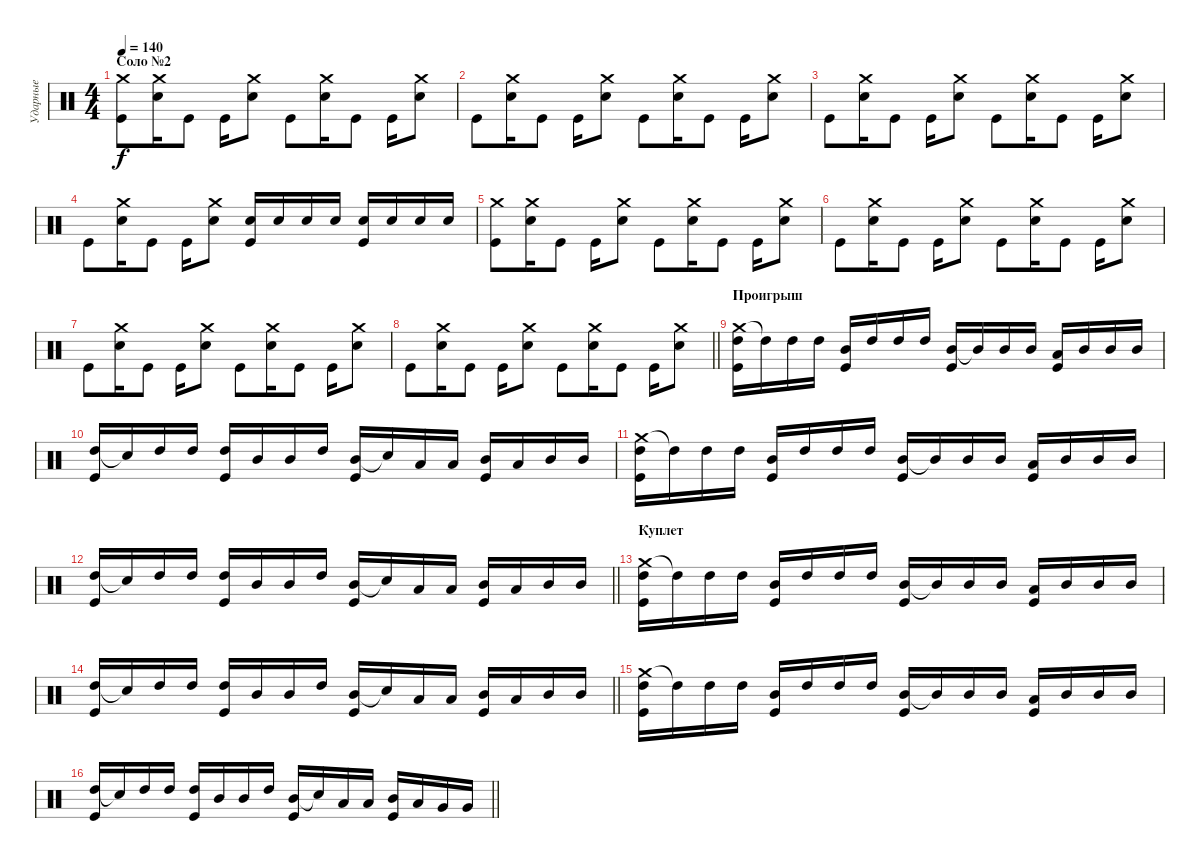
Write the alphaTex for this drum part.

\track ("Ударные" "Ударные") {instrument percussion}
\staff {score}
\articulation defaults
\ts (4 4)
\section ("" "Соло №2")
\tempo 140
\clef neutral
\ks c
("Crash medium (hit)" "Kick (hit)").8{dy f} ("Crash medium (hit)" "Electric Snare (hit)").16 "Kick (hit)".8 "Kick (hit)".16 ("Crash medium (hit)" "Electric Snare (hit)").8 "Kick (hit)".8 ("Crash medium (hit)" "Electric Snare (hit)").16 "Kick (hit)".8 "Kick (hit)".16 ("Crash medium (hit)" "Electric Snare (hit)").8 |
"Kick (hit)".8 ("Crash medium (hit)" "Electric Snare (hit)").16 "Kick (hit)".8 "Kick (hit)".16 ("Crash medium (hit)" "Electric Snare (hit)").8 "Kick (hit)".8 ("Crash medium (hit)" "Electric Snare (hit)").16 "Kick (hit)".8 "Kick (hit)".16 ("Crash medium (hit)" "Electric Snare (hit)").8 |
"Kick (hit)".8 ("Crash medium (hit)" "Electric Snare (hit)").16 "Kick (hit)".8 "Kick (hit)".16 ("Crash medium (hit)" "Electric Snare (hit)").8 "Kick (hit)".8 ("Crash medium (hit)" "Electric Snare (hit)").16 "Kick (hit)".8 "Kick (hit)".16 ("Crash medium (hit)" "Electric Snare (hit)").8 |
"Kick (hit)".8 ("Crash medium (hit)" "Electric Snare (hit)").16 "Kick (hit)".8 "Kick (hit)".16 ("Crash medium (hit)" "Electric Snare (hit)").8 ("Electric Snare (hit)" "Kick (hit)").16 "Electric Snare (hit)".16 "Electric Snare (hit)".16 "Electric Snare (hit)".16 ("Electric Snare (hit)" "Kick (hit)").16 "Electric Snare (hit)".16 "Electric Snare (hit)".16 "Electric Snare (hit)".16 |
("Crash medium (hit)" "Kick (hit)").8 ("Crash medium (hit)" "Electric Snare (hit)").16 "Kick (hit)".8 "Kick (hit)".16 ("Crash medium (hit)" "Electric Snare (hit)").8 "Kick (hit)".8 ("Crash medium (hit)" "Electric Snare (hit)").16 "Kick (hit)".8 "Kick (hit)".16 ("Crash medium (hit)" "Electric Snare (hit)").8 |
"Kick (hit)".8 ("Crash medium (hit)" "Electric Snare (hit)").16 "Kick (hit)".8 "Kick (hit)".16 ("Crash medium (hit)" "Electric Snare (hit)").8 "Kick (hit)".8 ("Crash medium (hit)" "Electric Snare (hit)").16 "Kick (hit)".8 "Kick (hit)".16 ("Crash medium (hit)" "Electric Snare (hit)").8 |
"Kick (hit)".8 ("Crash medium (hit)" "Electric Snare (hit)").16 "Kick (hit)".8 "Kick (hit)".16 ("Crash medium (hit)" "Electric Snare (hit)").8 "Kick (hit)".8 ("Crash medium (hit)" "Electric Snare (hit)").16 "Kick (hit)".8 "Kick (hit)".16 ("Crash medium (hit)" "Electric Snare (hit)").8 |
\barLineRight lightlight "Kick (hit)".8
("Crash medium (hit)" "Electric Snare (hit)").16 "Kick (hit)".8 "Kick (hit)".16 ("Crash medium (hit)" "Electric Snare (hit)").8 "Kick (hit)".8 ("Crash medium (hit)" "Electric Snare (hit)").16 "Kick (hit)".8 "Kick (hit)".16 ("Crash medium (hit)" "Electric Snare (hit)").8 |
\section ("" "Проигрыш")
("Crash medium (hit)" "High Tom (hit)" "Kick (hit)").16 "High Tom (hit)"{t}.16 "High Tom (hit)".16 "High Tom (hit)".16 ("Mid Tom (hit)" "Kick (hit)").16 "High Tom (hit)".16 "High Tom (hit)".16 "High Tom (hit)".16 ("Mid Tom (hit)" "Kick (hit)").16 "Mid Tom (hit)"{t}.16 "Mid Tom (hit)".16 "Mid Tom (hit)".16 ("Low Tom (hit)" "Kick (hit)").16 "Mid Tom (hit)".16 "Mid Tom (hit)".16 "Mid Tom (hit)".16 |
("High Tom (hit)" "Kick (hit)").16 "Snare (hit)"{t}.16 "High Tom (hit)".16 "High Tom (hit)".16 ("High Tom (hit)" "Kick (hit)").16 "Mid Tom (hit)".16 "Mid Tom (hit)".16 "High Tom (hit)".16 ("Mid Tom (hit)" "Kick (hit)").16 "Snare (hit)"{t}.16 "Low Tom (hit)".16 "Low Tom (hit)".16 ("Mid Tom (hit)" "Kick (hit)").16 "Low Tom (hit)".16 "Mid Tom (hit)".16 "Mid Tom (hit)".16 |
("Crash medium (hit)" "High Tom (hit)" "Kick (hit)").16 "High Tom (hit)"{t}.16 "High Tom (hit)".16 "High Tom (hit)".16 ("Mid Tom (hit)" "Kick (hit)").16 "High Tom (hit)".16 "High Tom (hit)".16 "High Tom (hit)".16 ("Mid Tom (hit)" "Kick (hit)").16 "Mid Tom (hit)"{t}.16 "Mid Tom (hit)".16 "Mid Tom (hit)".16 ("Low Tom (hit)" "Kick (hit)").16 "Mid Tom (hit)".16 "Mid Tom (hit)".16 "Mid Tom (hit)".16 |
\barLineRight lightlight
("High Tom (hit)" "Kick (hit)").16 "Snare (hit)"{t}.16 "High Tom (hit)".16 "High Tom (hit)".16 ("High Tom (hit)" "Kick (hit)").16 "Mid Tom (hit)".16 "Mid Tom (hit)".16 "High Tom (hit)".16 ("Mid Tom (hit)" "Kick (hit)").16 "Snare (hit)"{t}.16 "Low Tom (hit)".16 "Low Tom (hit)".16 ("Mid Tom (hit)" "Kick (hit)").16 "Low Tom (hit)".16 "Mid Tom (hit)".16 "Mid Tom (hit)".16 |
\section ("" "Куплет")
("Crash medium (hit)" "High Tom (hit)" "Kick (hit)").16 "High Tom (hit)"{t}.16 "High Tom (hit)".16 "High Tom (hit)".16 ("Mid Tom (hit)" "Kick (hit)").16 "High Tom (hit)".16 "High Tom (hit)".16 "High Tom (hit)".16 ("Mid Tom (hit)" "Kick (hit)").16 "Mid Tom (hit)"{t}.16 "Mid Tom (hit)".16 "Mid Tom (hit)".16 ("Low Tom (hit)" "Kick (hit)").16 "Mid Tom (hit)".16 "Mid Tom (hit)".16 "Mid Tom (hit)".16 |
\barLineRight lightlight
("High Tom (hit)" "Kick (hit)").16 "Snare (hit)"{t}.16 "High Tom (hit)".16 "High Tom (hit)".16 ("High Tom (hit)" "Kick (hit)").16 "Mid Tom (hit)".16 "Mid Tom (hit)".16 "High Tom (hit)".16 ("Mid Tom (hit)" "Kick (hit)").16 "Snare (hit)"{t}.16 "Low Tom (hit)".16 "Low Tom (hit)".16 ("Mid Tom (hit)" "Kick (hit)").16 "Low Tom (hit)".16 "Mid Tom (hit)".16 "Mid Tom (hit)".16 |
("Crash medium (hit)" "High Tom (hit)" "Kick (hit)").16 "High Tom (hit)"{t}.16 "High Tom (hit)".16 "High Tom (hit)".16 ("Mid Tom (hit)" "Kick (hit)").16 "High Tom (hit)".16 "High Tom (hit)".16 "High Tom (hit)".16 ("Mid Tom (hit)" "Kick (hit)").16 "Mid Tom (hit)"{t}.16 "Mid Tom (hit)".16 "Mid Tom (hit)".16 ("Low Tom (hit)" "Kick (hit)").16 "Mid Tom (hit)".16 "Mid Tom (hit)".16 "Mid Tom (hit)".16 |
\barLineRight lightlight
("High Tom (hit)" "Kick (hit)").16 "Snare (hit)"{t}.16 "High Tom (hit)".16 "High Tom (hit)".16 ("High Tom (hit)" "Kick (hit)").16 "Mid Tom (hit)".16 "Mid Tom (hit)".16 "High Tom (hit)".16 ("Mid Tom (hit)" "Kick (hit)").16 "Snare (hit)"{t}.16 "Low Tom (hit)".16 "Low Tom (hit)".16 ("Mid Tom (hit)" "Kick (hit)").16 "Low Tom (hit)".16 "Very Low Tom (hit)".16 "Very Low Tom (hit)".16
